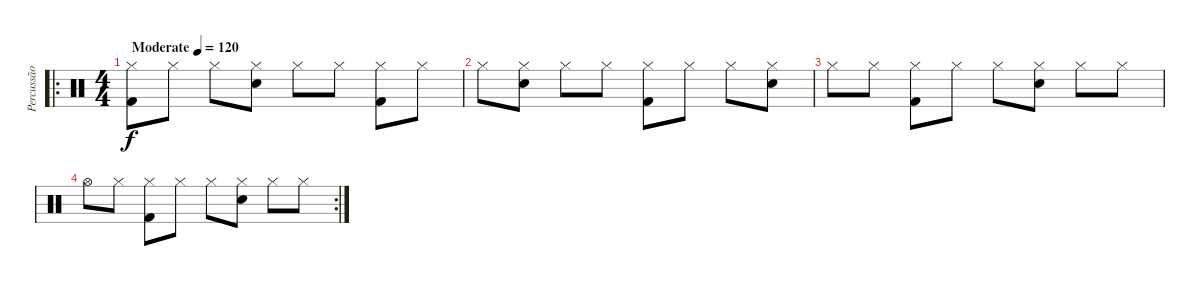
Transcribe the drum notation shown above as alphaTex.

\track ("Percussão" "Percussão") {instrument percussion}
\staff {score}
\articulation defaults
\ro
\ts (4 4)
\tempo (120 "Moderate")
\clef neutral
\ks c
("Hi-Hat (closed)" "Kick (hit) 2").8{dy f} "Hi-Hat (closed)".8 "Hi-Hat (closed)".8 ("Hi-Hat (closed)" "Snare (hit) 2").8 "Hi-Hat (closed)".8 "Hi-Hat (closed)".8 ("Hi-Hat (closed)" "Kick (hit) 2").8 "Hi-Hat (closed)".8 |
"Hi-Hat (closed)".8 ("Hi-Hat (closed)" "Snare (hit) 2").8 "Hi-Hat (closed)".8 "Hi-Hat (closed)".8 ("Hi-Hat (closed)" "Kick (hit) 2").8 "Hi-Hat (closed)".8 "Hi-Hat (closed)".8 ("Hi-Hat (closed)" "Snare (hit) 2").8 |
"Hi-Hat (closed)".8 "Hi-Hat (closed)".8 ("Hi-Hat (closed)" "Kick (hit) 2").8 "Hi-Hat (closed)".8 "Hi-Hat (closed)".8 ("Hi-Hat (closed)" "Snare (hit) 2").8 "Hi-Hat (closed)".8 "Hi-Hat (closed)".8 |
\rc 2 "Hi-Hat (open)".8 "Hi-Hat (closed)".8
("Hi-Hat (closed)" "Kick (hit) 2").8 "Hi-Hat (closed)".8 "Hi-Hat (closed)".8 ("Hi-Hat (closed)" "Snare (hit) 2").8 "Hi-Hat (closed)".8 "Hi-Hat (closed)".8
